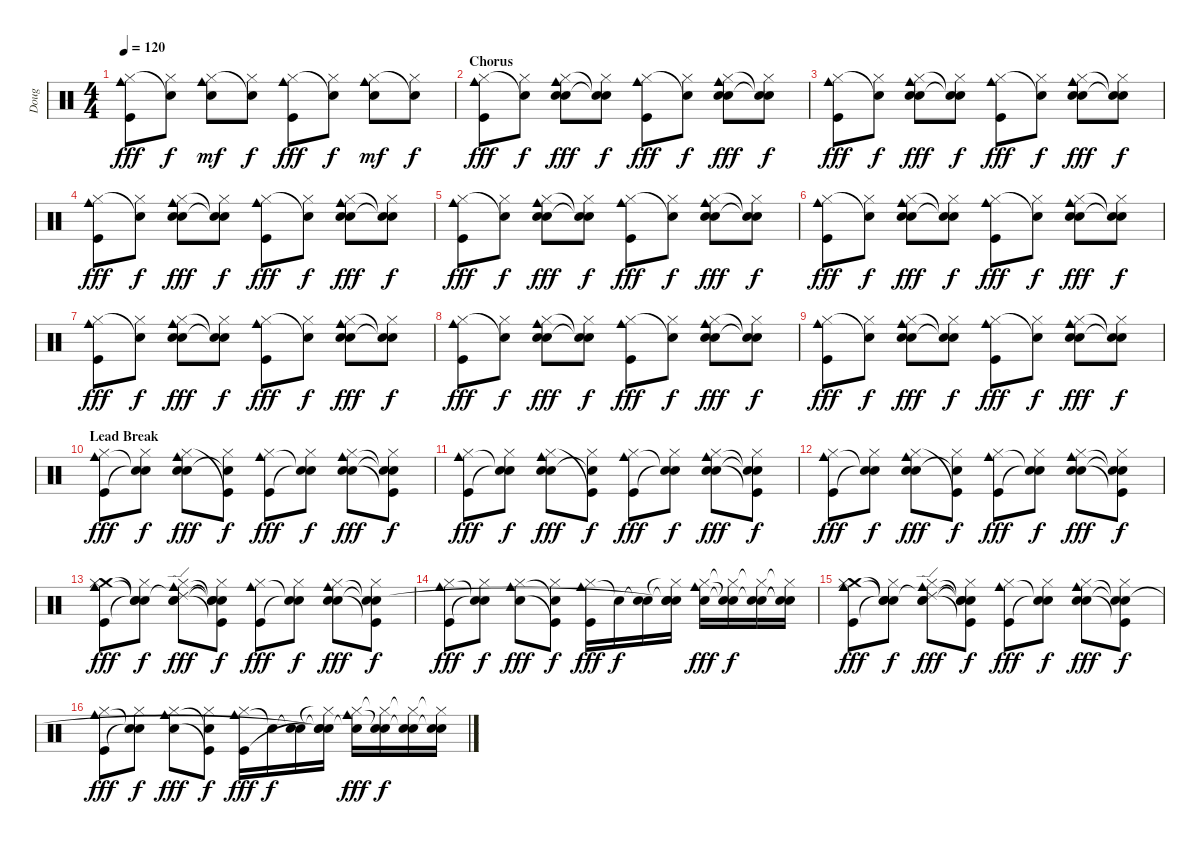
\track ("Doug" "Doug") {instrument percussion}
\staff {score}
\articulation defaults
\ts (4 4)
\tempo 120
\clef neutral
\ks c
("Cowbell medium (hit)" "Hi-Hat (closed)" "Kick (hit)").8{dy fff} ("Hi-Hat (closed)" "Snare (hit)"{t}).8{dy f} ("Cowbell medium (hit)" "Hi-Hat (closed)" "Snare (hit) 2").8{dy mf} ("Hi-Hat (closed)" "Snare (hit)"{t}).8{dy f} ("Cowbell medium (hit)" "Hi-Hat (closed)" "Kick (hit)").8{dy fff} ("Hi-Hat (closed)" "Snare (hit)"{t}).8{dy f} ("Cowbell medium (hit)" "Hi-Hat (closed)" "Snare (hit) 2").8{dy mf} ("Hi-Hat (closed)" "Snare (hit)"{t}).8{dy f} |
\section ("" "Chorus")
("Cowbell medium (hit)" "Hi-Hat (closed)" "Kick (hit)").8{dy fff} ("Hi-Hat (closed)" "Snare (hit)"{t}).8{dy f} ("Cowbell medium (hit)" "Hi-Hat (closed)" "Snare (hit) 2" "Hand Clap (hit)").8{dy fff} ("Hi-Hat (closed)" "Snare (hit)"{t} "Snare (hit)"{t}).8{dy f} ("Cowbell medium (hit)" "Hi-Hat (closed)" "Kick (hit)").8{dy fff} ("Hi-Hat (closed)" "Snare (hit)"{t}).8{dy f} ("Cowbell medium (hit)" "Hi-Hat (closed)" "Snare (hit) 2" "Hand Clap (hit)").8{dy fff} ("Hi-Hat (closed)" "Snare (hit)"{t} "Snare (hit)"{t}).8{dy f} |
("Cowbell medium (hit)" "Hi-Hat (closed)" "Kick (hit)").8{dy fff} ("Hi-Hat (closed)" "Snare (hit)"{t}).8{dy f} ("Cowbell medium (hit)" "Hi-Hat (closed)" "Snare (hit) 2" "Hand Clap (hit)").8{dy fff} ("Hi-Hat (closed)" "Snare (hit)"{t} "Snare (hit)"{t}).8{dy f} ("Cowbell medium (hit)" "Hi-Hat (closed)" "Kick (hit)").8{dy fff} ("Hi-Hat (closed)" "Snare (hit)"{t}).8{dy f} ("Cowbell medium (hit)" "Hi-Hat (closed)" "Snare (hit) 2" "Hand Clap (hit)").8{dy fff} ("Hi-Hat (closed)" "Snare (hit)"{t} "Snare (hit)"{t}).8{dy f} |
("Cowbell medium (hit)" "Hi-Hat (closed)" "Kick (hit)").8{dy fff} ("Hi-Hat (closed)" "Snare (hit)"{t}).8{dy f} ("Cowbell medium (hit)" "Hi-Hat (closed)" "Snare (hit) 2" "Hand Clap (hit)").8{dy fff} ("Hi-Hat (closed)" "Snare (hit)"{t} "Snare (hit)"{t}).8{dy f} ("Cowbell medium (hit)" "Hi-Hat (closed)" "Kick (hit)").8{dy fff} ("Hi-Hat (closed)" "Snare (hit)"{t}).8{dy f} ("Cowbell medium (hit)" "Hi-Hat (closed)" "Snare (hit) 2" "Hand Clap (hit)").8{dy fff} ("Hi-Hat (closed)" "Snare (hit)"{t} "Snare (hit)"{t}).8{dy f} |
("Cowbell medium (hit)" "Hi-Hat (closed)" "Kick (hit)").8{dy fff} ("Hi-Hat (closed)" "Snare (hit)"{t}).8{dy f} ("Cowbell medium (hit)" "Hi-Hat (closed)" "Snare (hit) 2" "Hand Clap (hit)").8{dy fff} ("Hi-Hat (closed)" "Snare (hit)"{t} "Snare (hit)"{t}).8{dy f} ("Cowbell medium (hit)" "Hi-Hat (closed)" "Kick (hit)").8{dy fff} ("Hi-Hat (closed)" "Snare (hit)"{t}).8{dy f} ("Cowbell medium (hit)" "Hi-Hat (closed)" "Snare (hit) 2" "Hand Clap (hit)").8{dy fff} ("Hi-Hat (closed)" "Snare (hit)"{t} "Snare (hit)"{t}).8{dy f} |
("Cowbell medium (hit)" "Hi-Hat (closed)" "Kick (hit)").8{dy fff} ("Hi-Hat (closed)" "Snare (hit)"{t}).8{dy f} ("Cowbell medium (hit)" "Hi-Hat (closed)" "Snare (hit) 2" "Hand Clap (hit)").8{dy fff} ("Hi-Hat (closed)" "Snare (hit)"{t} "Snare (hit)"{t}).8{dy f} ("Cowbell medium (hit)" "Hi-Hat (closed)" "Kick (hit)").8{dy fff} ("Hi-Hat (closed)" "Snare (hit)"{t}).8{dy f} ("Cowbell medium (hit)" "Hi-Hat (closed)" "Snare (hit) 2" "Hand Clap (hit)").8{dy fff} ("Hi-Hat (closed)" "Snare (hit)"{t} "Snare (hit)"{t}).8{dy f} |
("Cowbell medium (hit)" "Hi-Hat (closed)" "Kick (hit)").8{dy fff} ("Hi-Hat (closed)" "Snare (hit)"{t}).8{dy f} ("Cowbell medium (hit)" "Hi-Hat (closed)" "Snare (hit) 2" "Hand Clap (hit)").8{dy fff} ("Hi-Hat (closed)" "Snare (hit)"{t} "Snare (hit)"{t}).8{dy f} ("Cowbell medium (hit)" "Hi-Hat (closed)" "Kick (hit)").8{dy fff} ("Hi-Hat (closed)" "Snare (hit)"{t}).8{dy f} ("Cowbell medium (hit)" "Hi-Hat (closed)" "Snare (hit) 2" "Hand Clap (hit)").8{dy fff} ("Hi-Hat (closed)" "Snare (hit)"{t} "Snare (hit)"{t}).8{dy f} |
("Cowbell medium (hit)" "Hi-Hat (closed)" "Kick (hit)").8{dy fff} ("Hi-Hat (closed)" "Snare (hit)"{t}).8{dy f} ("Cowbell medium (hit)" "Hi-Hat (closed)" "Snare (hit) 2" "Hand Clap (hit)").8{dy fff} ("Hi-Hat (closed)" "Snare (hit)"{t} "Snare (hit)"{t}).8{dy f} ("Cowbell medium (hit)" "Hi-Hat (closed)" "Kick (hit)").8{dy fff} ("Hi-Hat (closed)" "Snare (hit)"{t}).8{dy f} ("Cowbell medium (hit)" "Hi-Hat (closed)" "Snare (hit) 2" "Hand Clap (hit)").8{dy fff} ("Hi-Hat (closed)" "Snare (hit)"{t} "Snare (hit)"{t}).8{dy f} |
("Cowbell medium (hit)" "Hi-Hat (closed)" "Kick (hit)").8{dy fff} ("Hi-Hat (closed)" "Snare (hit)"{t}).8{dy f} ("Cowbell medium (hit)" "Hi-Hat (closed)" "Snare (hit) 2" "Hand Clap (hit)").8{dy fff} ("Hi-Hat (closed)" "Snare (hit)"{t} "Snare (hit)"{t}).8{dy f} ("Cowbell medium (hit)" "Hi-Hat (closed)" "Kick (hit)").8{dy fff} ("Hi-Hat (closed)" "Snare (hit)"{t}).8{dy f} ("Cowbell medium (hit)" "Hi-Hat (closed)" "Snare (hit) 2" "Hand Clap (hit)").8{dy fff} ("Hi-Hat (closed)" "Snare (hit)"{t} "Snare (hit)"{t}).8{dy f} |
\section ("" "Lead Break")
("Cowbell medium (hit)" "Hi-Hat (closed)" "Kick (hit)").8{dy fff} ("Snare (hit)"{t} "Hi-Hat (closed)" "Snare (hit)"{t}).8{dy f} ("Cowbell medium (hit)" "Hi-Hat (closed)" "Snare (hit) 2" "Hand Clap (hit)").8{dy fff} ("Hi-Hat (closed)" "Kick (hit)"{t} "Snare (hit)"{t}).8{dy f} ("Cowbell medium (hit)" "Hi-Hat (closed)" "Kick (hit)").8{dy fff} ("Snare (hit)"{t} "Hi-Hat (closed)" "Snare (hit)"{t}).8{dy f} ("Cowbell medium (hit)" "Hi-Hat (closed)" "Snare (hit) 2" "Hand Clap (hit)").8{dy fff} ("Snare (hit)"{t} "Hi-Hat (closed)" "Kick (hit)"{t} "Snare (hit)"{t}).8{dy f} |
("Cowbell medium (hit)" "Hi-Hat (closed)" "Kick (hit)").8{dy fff} ("Snare (hit)"{t} "Hi-Hat (closed)" "Snare (hit)"{t}).8{dy f} ("Cowbell medium (hit)" "Hi-Hat (closed)" "Snare (hit) 2" "Hand Clap (hit)").8{dy fff} ("Hi-Hat (closed)" "Kick (hit)"{t} "Snare (hit)"{t}).8{dy f} ("Cowbell medium (hit)" "Hi-Hat (closed)" "Kick (hit)").8{dy fff} ("Snare (hit)"{t} "Hi-Hat (closed)" "Snare (hit)"{t}).8{dy f} ("Cowbell medium (hit)" "Hi-Hat (closed)" "Snare (hit) 2" "Hand Clap (hit)").8{dy fff} ("Snare (hit)"{t} "Hi-Hat (closed)" "Kick (hit)"{t} "Snare (hit)"{t}).8{dy f} |
("Cowbell medium (hit)" "Hi-Hat (closed)" "Kick (hit)").8{dy fff} ("Snare (hit)"{t} "Hi-Hat (closed)" "Snare (hit)"{t}).8{dy f} ("Cowbell medium (hit)" "Hi-Hat (closed)" "Snare (hit) 2" "Hand Clap (hit)").8{dy fff} ("Hi-Hat (closed)" "Kick (hit)"{t} "Snare (hit)"{t}).8{dy f} ("Cowbell medium (hit)" "Hi-Hat (closed)" "Kick (hit)").8{dy fff} ("Snare (hit)"{t} "Hi-Hat (closed)" "Snare (hit)"{t}).8{dy f} ("Cowbell medium (hit)" "Hi-Hat (closed)" "Snare (hit) 2" "Hand Clap (hit)").8{dy fff} ("Snare (hit)"{t} "Hi-Hat (closed)" "Kick (hit)"{t} "Snare (hit)"{t}).8{dy f} |
("Crash medium (hit)" "Hi-Hat (closed)" "Kick (hit)" "Cowbell medium (hit)").8{dy fff} ("Snare (hit)"{t} "Hi-Hat (closed)" "Snare (hit)"{t} "Snare (hit)"{t}).8{dy f} ("Ride (edge) 2"{t} "Hi-Hat (closed)" "Snare (hit) 2" "Cowbell medium (hit)" "Hand Clap (hit)").8{dy fff} ("Snare (hit)"{t} "Hi-Hat (closed)" "Kick (hit)"{t} "Snare (hit)"{t} "Snare (hit)"{t}).8{dy f} ("Cowbell medium (hit)" "Hi-Hat (closed)" "Kick (hit)").8{dy fff} ("Snare (hit)"{t} "Hi-Hat (closed)" "Snare (hit)"{t}).8{dy f} ("Cowbell medium (hit)" "Hi-Hat (closed)" "Snare (hit) 2" "Hand Clap (hit)").8{dy fff} ("Snare (hit)"{t} "Hi-Hat (closed)" "Kick (hit)"{t} "Snare (hit)"{t}).8{dy f} |
("Cowbell medium (hit)" "Hi-Hat (closed)" "Kick (hit)").8{dy fff} ("Snare (hit)"{t} "Hi-Hat (closed)" "Snare (hit)"{t}).8{dy f} ("Cowbell medium (hit)" "Hi-Hat (closed)" "Snare (hit) 2").8{dy fff} ("Snare (hit)"{t} "Hi-Hat (closed)" "Kick (hit)"{t}).8{dy f} ("Cowbell medium (hit)" "Hi-Hat (closed)" "Kick (hit)").16{dy fff} "Snare (hit)"{t}.16{dy f} ("Snare (hit)"{t} "Snare (hit) 2").16 ("Snare (hit)"{t} "Hi-Hat (closed)"{t} "Snare (hit) 2" "Snare (hit)"{t}).16 ("Cowbell medium (hit)" "Hi-Hat (closed)" "Snare (hit) 2").16{dy fff} ("Snare (hit)"{t} "Hi-Hat (closed)"{t} "Snare (hit) 2"{t}).16{dy f} ("Snare (hit)"{t} "Hi-Hat (closed)"{t} "Snare (hit) 2").16 ("Snare (hit)"{t} "Hi-Hat (closed)"{t} "Snare (hit) 2"{t}).16 |
("Crash medium (hit)" "Hi-Hat (closed)" "Kick (hit)" "Cowbell medium (hit)").8{dy fff} ("Snare (hit)"{t} "Hi-Hat (closed)" "Snare (hit)"{t} "Snare (hit)"{t}).8{dy f} ("Ride (edge) 2"{t} "Hi-Hat (closed)" "Snare (hit) 2" "Cowbell medium (hit)" "Hand Clap (hit)").8{dy fff} ("Snare (hit)"{t} "Hi-Hat (closed)" "Kick (hit)"{t} "Snare (hit)"{t} "Snare (hit)"{t}).8{dy f} ("Cowbell medium (hit)" "Hi-Hat (closed)" "Kick (hit)").8{dy fff} ("Snare (hit)"{t} "Hi-Hat (closed)" "Snare (hit)"{t}).8{dy f} ("Cowbell medium (hit)" "Hi-Hat (closed)" "Snare (hit) 2" "Hand Clap (hit)").8{dy fff} ("Snare (hit)"{t} "Hi-Hat (closed)" "Kick (hit)"{t} "Snare (hit)"{t}).8{dy f} |
("Cowbell medium (hit)" "Hi-Hat (closed)" "Kick (hit)").8{dy fff} ("Snare (hit)"{t} "Hi-Hat (closed)" "Snare (hit)"{t}).8{dy f} ("Cowbell medium (hit)" "Hi-Hat (closed)" "Snare (hit) 2").8{dy fff} ("Snare (hit)"{t} "Hi-Hat (closed)" "Kick (hit)"{t}).8{dy f} ("Cowbell medium (hit)" "Hi-Hat (closed)" "Kick (hit)").16{dy fff} "Snare (hit)"{t}.16{dy f} ("Snare (hit)"{t} "Snare (hit) 2").16 ("Snare (hit)"{t} "Hi-Hat (closed)"{t} "Snare (hit) 2"{t} "Snare (hit)"{t}).16 ("Cowbell medium (hit)" "Hi-Hat (closed)" "Snare (hit) 2"{t}).16{dy fff} ("Snare (hit)"{t} "Hi-Hat (closed)"{t} "Snare (hit) 2").16{dy f} ("Snare (hit)"{t} "Hi-Hat (closed)"{t} "Snare (hit) 2").16 ("Snare (hit)"{t} "Hi-Hat (closed)"{t} "Snare (hit) 2").16
